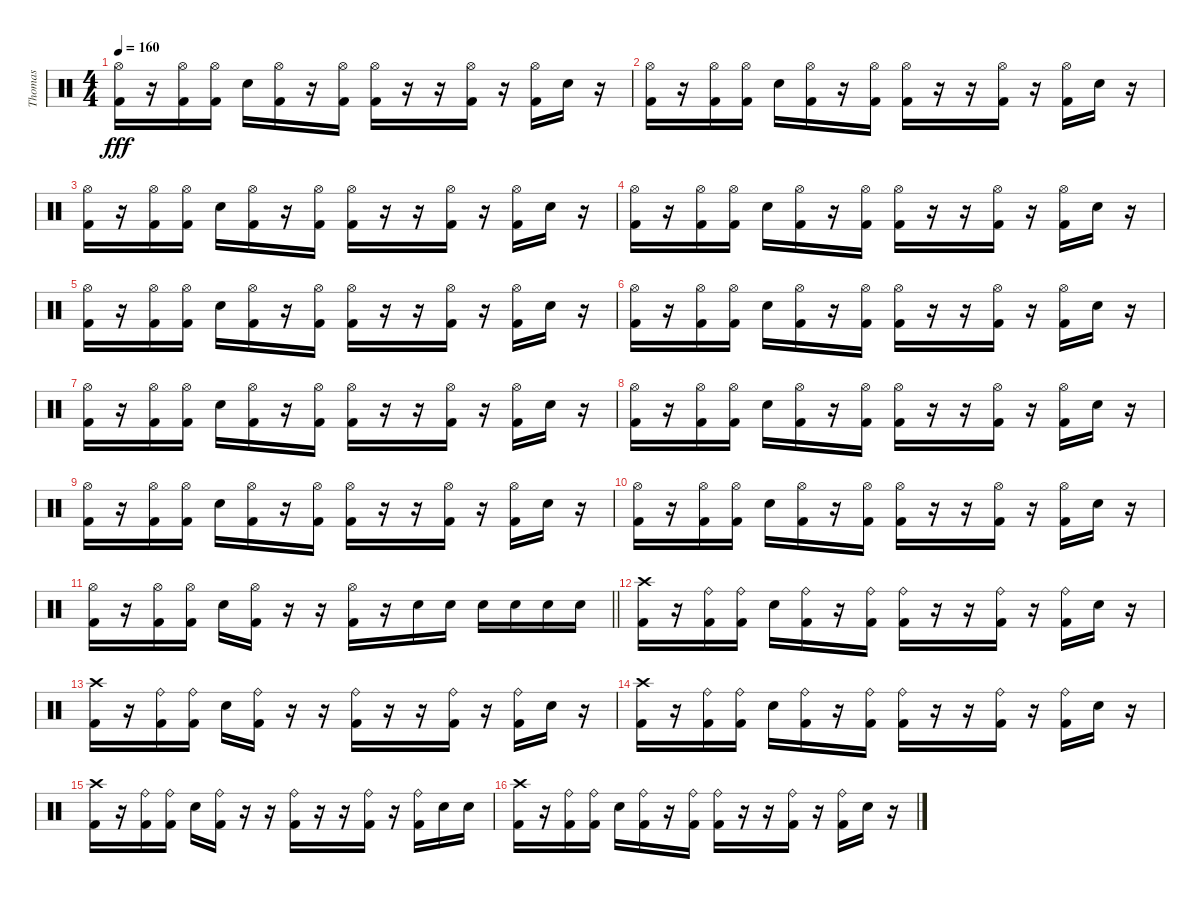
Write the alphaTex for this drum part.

\track ("Thomas " "Thomas ") {instrument percussion}
\staff {score}
\articulation defaults
\ts (4 4)
\tempo 160
\clef neutral
\ks c
("Hi-Hat (open)" "Kick (hit) 2").16{dy fff} r.16 ("Hi-Hat (open)" "Kick (hit) 2").16 ("Hi-Hat (open)" "Kick (hit) 2").16 "Electric Snare (hit)".16 ("Hi-Hat (open)" "Kick (hit) 2").16 r.16 ("Hi-Hat (open)" "Kick (hit) 2").16 ("Hi-Hat (open)" "Kick (hit) 2").16 r.16 r.16 ("Hi-Hat (open)" "Kick (hit) 2").16 r.16 ("Hi-Hat (open)" "Kick (hit) 2").16 "Electric Snare (hit)".16 r.16 |
("Hi-Hat (open)" "Kick (hit) 2").16 r.16 ("Hi-Hat (open)" "Kick (hit) 2").16 ("Hi-Hat (open)" "Kick (hit) 2").16 "Electric Snare (hit)".16 ("Hi-Hat (open)" "Kick (hit) 2").16 r.16 ("Hi-Hat (open)" "Kick (hit) 2").16 ("Hi-Hat (open)" "Kick (hit) 2").16 r.16 r.16 ("Hi-Hat (open)" "Kick (hit) 2").16 r.16 ("Hi-Hat (open)" "Kick (hit) 2").16 "Electric Snare (hit)".16 r.16 |
("Hi-Hat (open)" "Kick (hit) 2").16 r.16 ("Hi-Hat (open)" "Kick (hit) 2").16 ("Hi-Hat (open)" "Kick (hit) 2").16 "Electric Snare (hit)".16 ("Hi-Hat (open)" "Kick (hit) 2").16 r.16 ("Hi-Hat (open)" "Kick (hit) 2").16 ("Hi-Hat (open)" "Kick (hit) 2").16 r.16 r.16 ("Hi-Hat (open)" "Kick (hit) 2").16 r.16 ("Hi-Hat (open)" "Kick (hit) 2").16 "Electric Snare (hit)".16 r.16 |
("Hi-Hat (open)" "Kick (hit) 2").16 r.16 ("Hi-Hat (open)" "Kick (hit) 2").16 ("Hi-Hat (open)" "Kick (hit) 2").16 "Electric Snare (hit)".16 ("Hi-Hat (open)" "Kick (hit) 2").16 r.16 ("Hi-Hat (open)" "Kick (hit) 2").16 ("Hi-Hat (open)" "Kick (hit) 2").16 r.16 r.16 ("Hi-Hat (open)" "Kick (hit) 2").16 r.16 ("Hi-Hat (open)" "Kick (hit) 2").16 "Electric Snare (hit)".16 r.16 |
("Hi-Hat (open)" "Kick (hit) 2").16 r.16 ("Hi-Hat (open)" "Kick (hit) 2").16 ("Hi-Hat (open)" "Kick (hit) 2").16 "Electric Snare (hit)".16 ("Hi-Hat (open)" "Kick (hit) 2").16 r.16 ("Hi-Hat (open)" "Kick (hit) 2").16 ("Hi-Hat (open)" "Kick (hit) 2").16 r.16 r.16 ("Hi-Hat (open)" "Kick (hit) 2").16 r.16 ("Hi-Hat (open)" "Kick (hit) 2").16 "Electric Snare (hit)".16 r.16 |
("Hi-Hat (open)" "Kick (hit) 2").16 r.16 ("Hi-Hat (open)" "Kick (hit) 2").16 ("Hi-Hat (open)" "Kick (hit) 2").16 "Electric Snare (hit)".16 ("Hi-Hat (open)" "Kick (hit) 2").16 r.16 ("Hi-Hat (open)" "Kick (hit) 2").16 ("Hi-Hat (open)" "Kick (hit) 2").16 r.16 r.16 ("Hi-Hat (open)" "Kick (hit) 2").16 r.16 ("Hi-Hat (open)" "Kick (hit) 2").16 "Electric Snare (hit)".16 r.16 |
("Hi-Hat (open)" "Kick (hit) 2").16 r.16 ("Hi-Hat (open)" "Kick (hit) 2").16 ("Hi-Hat (open)" "Kick (hit) 2").16 "Electric Snare (hit)".16 ("Hi-Hat (open)" "Kick (hit) 2").16 r.16 ("Hi-Hat (open)" "Kick (hit) 2").16 ("Hi-Hat (open)" "Kick (hit) 2").16 r.16 r.16 ("Hi-Hat (open)" "Kick (hit) 2").16 r.16 ("Hi-Hat (open)" "Kick (hit) 2").16 "Electric Snare (hit)".16 r.16 |
("Hi-Hat (open)" "Kick (hit) 2").16 r.16 ("Hi-Hat (open)" "Kick (hit) 2").16 ("Hi-Hat (open)" "Kick (hit) 2").16 "Electric Snare (hit)".16 ("Hi-Hat (open)" "Kick (hit) 2").16 r.16 ("Hi-Hat (open)" "Kick (hit) 2").16 ("Hi-Hat (open)" "Kick (hit) 2").16 r.16 r.16 ("Hi-Hat (open)" "Kick (hit) 2").16 r.16 ("Hi-Hat (open)" "Kick (hit) 2").16 "Electric Snare (hit)".16 r.16 |
("Hi-Hat (open)" "Kick (hit) 2").16 r.16 ("Hi-Hat (open)" "Kick (hit) 2").16 ("Hi-Hat (open)" "Kick (hit) 2").16 "Electric Snare (hit)".16 ("Hi-Hat (open)" "Kick (hit) 2").16 r.16 ("Hi-Hat (open)" "Kick (hit) 2").16 ("Hi-Hat (open)" "Kick (hit) 2").16 r.16 r.16 ("Hi-Hat (open)" "Kick (hit) 2").16 r.16 ("Hi-Hat (open)" "Kick (hit) 2").16 "Electric Snare (hit)".16 r.16 |
("Hi-Hat (open)" "Kick (hit) 2").16 r.16 ("Hi-Hat (open)" "Kick (hit) 2").16 ("Hi-Hat (open)" "Kick (hit) 2").16 "Electric Snare (hit)".16 ("Hi-Hat (open)" "Kick (hit) 2").16 r.16 ("Hi-Hat (open)" "Kick (hit) 2").16 ("Hi-Hat (open)" "Kick (hit) 2").16 r.16 r.16 ("Hi-Hat (open)" "Kick (hit) 2").16 r.16 ("Hi-Hat (open)" "Kick (hit) 2").16 "Electric Snare (hit)".16 r.16 |
\barLineRight lightlight
("Hi-Hat (open)" "Kick (hit) 2").16 r.16 ("Hi-Hat (open)" "Kick (hit) 2").16 ("Hi-Hat (open)" "Kick (hit) 2").16 "Electric Snare (hit)".16 ("Hi-Hat (open)" "Kick (hit) 2").16 r.16 r.16 ("Hi-Hat (open)" "Kick (hit) 2").16 r.16 "Electric Snare (hit)".16 "Electric Snare (hit)".16 "Electric Snare (hit)".16 "Electric Snare (hit)".16 "Electric Snare (hit)".16 "Electric Snare (hit)".16 |
("Crash high (hit)" "Kick (hit) 2").16 r.16 ("Ride (bell)" "Kick (hit) 2").16 ("Ride (bell)" "Kick (hit) 2").16 "Electric Snare (hit)".16 ("Ride (bell)" "Kick (hit) 2").16 r.16 ("Ride (bell)" "Kick (hit) 2").16 ("Ride (bell)" "Kick (hit) 2").16 r.16 r.16 ("Ride (bell)" "Kick (hit) 2").16 r.16 ("Ride (bell)" "Kick (hit) 2").16 "Electric Snare (hit)".16 r.16 |
("Crash high (hit)" "Kick (hit) 2").16 r.16 ("Ride (bell)" "Kick (hit) 2").16 ("Ride (bell)" "Kick (hit) 2").16 "Electric Snare (hit)".16 ("Ride (bell)" "Kick (hit) 2").16 r.16 r.16 ("Ride (bell)" "Kick (hit) 2").16 r.16 r.16 ("Ride (bell)" "Kick (hit) 2").16 r.16 ("Ride (bell)" "Kick (hit) 2").16 "Electric Snare (hit)".16 r.16 |
("Crash high (hit)" "Kick (hit) 2").16 r.16 ("Ride (bell)" "Kick (hit) 2").16 ("Ride (bell)" "Kick (hit) 2").16 "Electric Snare (hit)".16 ("Ride (bell)" "Kick (hit) 2").16 r.16 ("Ride (bell)" "Kick (hit) 2").16 ("Ride (bell)" "Kick (hit) 2").16 r.16 r.16 ("Ride (bell)" "Kick (hit) 2").16 r.16 ("Ride (bell)" "Kick (hit) 2").16 "Electric Snare (hit)".16 r.16 |
("Crash high (hit)" "Kick (hit) 2").16 r.16 ("Ride (bell)" "Kick (hit) 2").16 ("Ride (bell)" "Kick (hit) 2").16 "Electric Snare (hit)".16 ("Ride (bell)" "Kick (hit) 2").16 r.16 r.16 ("Ride (bell)" "Kick (hit) 2").16 r.16 r.16 ("Ride (bell)" "Kick (hit) 2").16 r.16 ("Ride (bell)" "Kick (hit) 2").16 "Electric Snare (hit)".16 "Electric Snare (hit)".16 |
("Crash high (hit)" "Kick (hit) 2").16 r.16 ("Ride (bell)" "Kick (hit) 2").16 ("Ride (bell)" "Kick (hit) 2").16 "Electric Snare (hit)".16 ("Ride (bell)" "Kick (hit) 2").16 r.16 ("Ride (bell)" "Kick (hit) 2").16 ("Ride (bell)" "Kick (hit) 2").16 r.16 r.16 ("Ride (bell)" "Kick (hit) 2").16 r.16 ("Ride (bell)" "Kick (hit) 2").16 "Electric Snare (hit)".16 r.16
